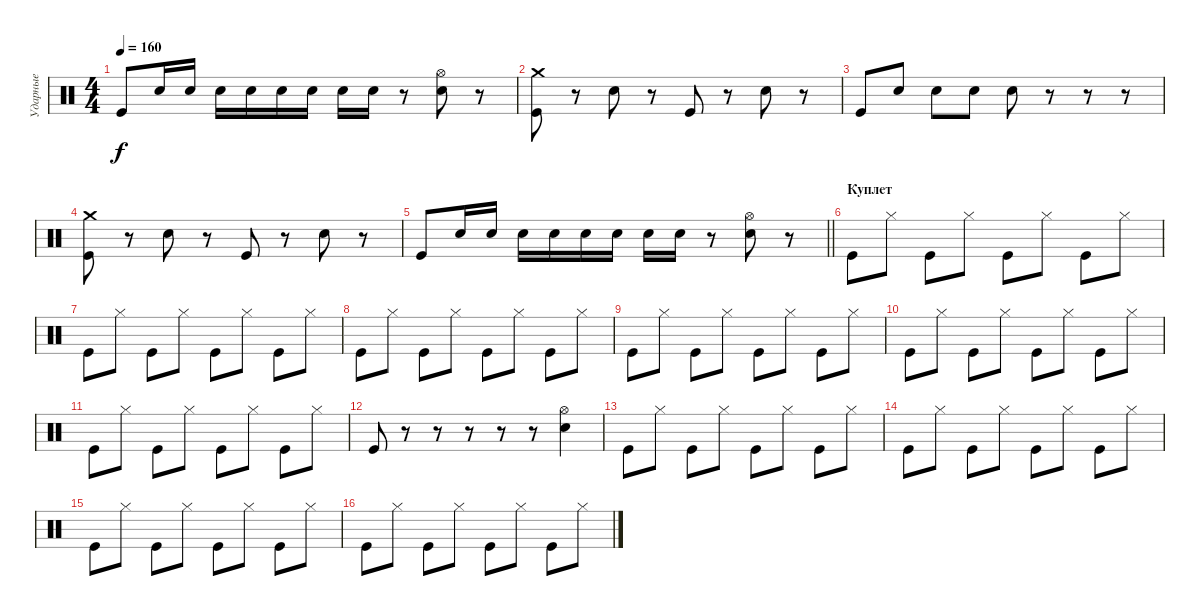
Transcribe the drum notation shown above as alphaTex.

\track ("Ударные" "Ударные") {instrument percussion}
\staff {score}
\articulation defaults
\ts (4 4)
\tempo 160
\clef neutral
\ks c "Kick (hit)".8{dy f} "Electric Snare (hit)".16 "Electric Snare (hit)".16 "Electric Snare (hit)".16 "Electric Snare (hit)".16 "Electric Snare (hit)".16 "Electric Snare (hit)".16 "Electric Snare (hit)".16 "Electric Snare (hit)".16
r.8 ("Hi-Hat (open)" "Electric Snare (hit)").8 r.8 |
("Crash medium (hit)" "Kick (hit)").8 r.8 "Electric Snare (hit)".8 r.8 "Kick (hit)".8 r.8 "Electric Snare (hit)".8 r.8 |
"Kick (hit)".8 "Electric Snare (hit)".8 "Electric Snare (hit)".8 "Electric Snare (hit)".8 "Electric Snare (hit)".8 r.8 r.8 r.8 |
("Crash medium (hit)" "Kick (hit)").8 r.8 "Electric Snare (hit)".8 r.8 "Kick (hit)".8 r.8 "Electric Snare (hit)".8 r.8 |
\barLineRight lightlight "Kick (hit)".8 "Electric Snare (hit)".16 "Electric Snare (hit)".16 "Electric Snare (hit)".16 "Electric Snare (hit)".16 "Electric Snare (hit)".16 "Electric Snare (hit)".16 "Electric Snare (hit)".16 "Electric Snare (hit)".16
r.8 ("Hi-Hat (open)" "Electric Snare (hit)").8 r.8 |
\section ("" "Куплет")
"Kick (hit)".8 "Hi-Hat (closed)".8 "Kick (hit)".8 "Hi-Hat (closed)".8 "Kick (hit)".8 "Hi-Hat (closed)".8 "Kick (hit)".8 "Hi-Hat (closed)".8 |
"Kick (hit)".8 "Hi-Hat (closed)".8 "Kick (hit)".8 "Hi-Hat (closed)".8 "Kick (hit)".8 "Hi-Hat (closed)".8 "Kick (hit)".8 "Hi-Hat (closed)".8 |
"Kick (hit)".8 "Hi-Hat (closed)".8 "Kick (hit)".8 "Hi-Hat (closed)".8 "Kick (hit)".8 "Hi-Hat (closed)".8 "Kick (hit)".8 "Hi-Hat (closed)".8 |
"Kick (hit)".8 "Hi-Hat (closed)".8 "Kick (hit)".8 "Hi-Hat (closed)".8 "Kick (hit)".8 "Hi-Hat (closed)".8 "Kick (hit)".8 "Hi-Hat (closed)".8 |
"Kick (hit)".8 "Hi-Hat (closed)".8 "Kick (hit)".8 "Hi-Hat (closed)".8 "Kick (hit)".8 "Hi-Hat (closed)".8 "Kick (hit)".8 "Hi-Hat (closed)".8 |
"Kick (hit)".8 "Hi-Hat (closed)".8 "Kick (hit)".8 "Hi-Hat (closed)".8 "Kick (hit)".8 "Hi-Hat (closed)".8 "Kick (hit)".8 "Hi-Hat (closed)".8 |
"Kick (hit)".8 r.8 r.8 r.8 r.8 r.8 ("Hi-Hat (open)" "Electric Snare (hit)").4 |
"Kick (hit)".8 "Hi-Hat (closed)".8 "Kick (hit)".8 "Hi-Hat (closed)".8 "Kick (hit)".8 "Hi-Hat (closed)".8 "Kick (hit)".8 "Hi-Hat (closed)".8 |
"Kick (hit)".8 "Hi-Hat (closed)".8 "Kick (hit)".8 "Hi-Hat (closed)".8 "Kick (hit)".8 "Hi-Hat (closed)".8 "Kick (hit)".8 "Hi-Hat (closed)".8 |
"Kick (hit)".8 "Hi-Hat (closed)".8 "Kick (hit)".8 "Hi-Hat (closed)".8 "Kick (hit)".8 "Hi-Hat (closed)".8 "Kick (hit)".8 "Hi-Hat (closed)".8 |
"Kick (hit)".8 "Hi-Hat (closed)".8 "Kick (hit)".8 "Hi-Hat (closed)".8 "Kick (hit)".8 "Hi-Hat (closed)".8 "Kick (hit)".8 "Hi-Hat (closed)".8
